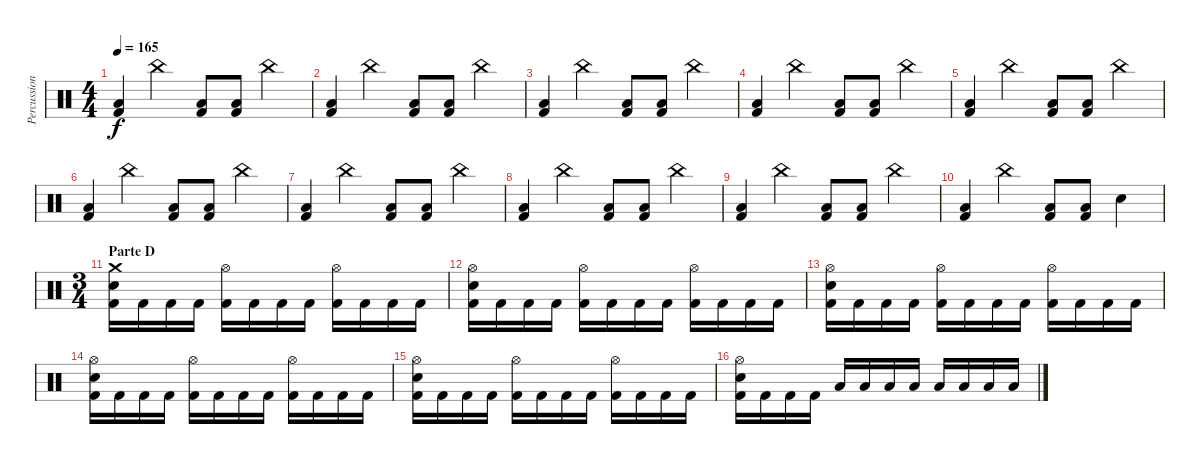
\track ("Percussion" "Percussion") {instrument percussion}
\staff {score}
\articulation defaults
\ts (4 4)
\tempo 165
\clef neutral
\ks c
("Low Tom (hit)" "Kick (hit) 2").4{dy f} "China (hit)".4 ("Low Tom (hit)" "Kick (hit) 2").8 ("Low Tom (hit)" "Kick (hit) 2").8 "China (hit)".4 |
("Low Tom (hit)" "Kick (hit) 2").4 "China (hit)".4 ("Low Tom (hit)" "Kick (hit) 2").8 ("Low Tom (hit)" "Kick (hit) 2").8 "China (hit)".4 |
("Low Tom (hit)" "Kick (hit) 2").4 "China (hit)".4 ("Low Tom (hit)" "Kick (hit) 2").8 ("Low Tom (hit)" "Kick (hit) 2").8 "China (hit)".4 |
("Low Tom (hit)" "Kick (hit) 2").4 "China (hit)".4 ("Low Tom (hit)" "Kick (hit) 2").8 ("Low Tom (hit)" "Kick (hit) 2").8 "China (hit)".4 |
("Low Tom (hit)" "Kick (hit) 2").4 "China (hit)".4 ("Low Tom (hit)" "Kick (hit) 2").8 ("Low Tom (hit)" "Kick (hit) 2").8 "China (hit)".4 |
("Low Tom (hit)" "Kick (hit) 2").4 "China (hit)".4 ("Low Tom (hit)" "Kick (hit) 2").8 ("Low Tom (hit)" "Kick (hit) 2").8 "China (hit)".4 |
("Low Tom (hit)" "Kick (hit) 2").4 "China (hit)".4 ("Low Tom (hit)" "Kick (hit) 2").8 ("Low Tom (hit)" "Kick (hit) 2").8 "China (hit)".4 |
("Low Tom (hit)" "Kick (hit) 2").4 "China (hit)".4 ("Low Tom (hit)" "Kick (hit) 2").8 ("Low Tom (hit)" "Kick (hit) 2").8 "China (hit)".4 |
("Low Tom (hit)" "Kick (hit) 2").4 "China (hit)".4 ("Low Tom (hit)" "Kick (hit) 2").8 ("Low Tom (hit)" "Kick (hit) 2").8 "China (hit)".4 |
("Low Tom (hit)" "Kick (hit) 2").4 "China (hit)".4 ("Low Tom (hit)" "Kick (hit) 2").8 ("Low Tom (hit)" "Kick (hit) 2").8 "Snare (hit) 2".4 |
\ts (3 4)
\section ("" "Parte D")
("Crash medium (hit)" "Snare (hit) 2" "Kick (hit) 2").16 "Kick (hit) 2".16 "Kick (hit) 2".16 "Kick (hit) 2".16 ("Hi-Hat (open)" "Kick (hit) 2").16 "Kick (hit) 2".16 "Kick (hit) 2".16 "Kick (hit) 2".16 ("Hi-Hat (open)" "Kick (hit) 2").16 "Kick (hit) 2".16 "Kick (hit) 2".16 "Kick (hit) 2".16 |
("Hi-Hat (open)" "Snare (hit) 2" "Kick (hit) 2").16 "Kick (hit) 2".16 "Kick (hit) 2".16 "Kick (hit) 2".16 ("Hi-Hat (open)" "Kick (hit) 2").16 "Kick (hit) 2".16 "Kick (hit) 2".16 "Kick (hit) 2".16 ("Hi-Hat (open)" "Kick (hit) 2").16 "Kick (hit) 2".16 "Kick (hit) 2".16 "Kick (hit) 2".16 |
("Hi-Hat (open)" "Snare (hit) 2" "Kick (hit) 2").16 "Kick (hit) 2".16 "Kick (hit) 2".16 "Kick (hit) 2".16 ("Hi-Hat (open)" "Kick (hit) 2").16 "Kick (hit) 2".16 "Kick (hit) 2".16 "Kick (hit) 2".16 ("Hi-Hat (open)" "Kick (hit) 2").16 "Kick (hit) 2".16 "Kick (hit) 2".16 "Kick (hit) 2".16 |
("Hi-Hat (open)" "Snare (hit) 2" "Kick (hit) 2").16 "Kick (hit) 2".16 "Kick (hit) 2".16 "Kick (hit) 2".16 ("Hi-Hat (open)" "Kick (hit) 2").16 "Kick (hit) 2".16 "Kick (hit) 2".16 "Kick (hit) 2".16 ("Hi-Hat (open)" "Kick (hit) 2").16 "Kick (hit) 2".16 "Kick (hit) 2".16 "Kick (hit) 2".16 |
("Hi-Hat (open)" "Snare (hit) 2" "Kick (hit) 2").16 "Kick (hit) 2".16 "Kick (hit) 2".16 "Kick (hit) 2".16 ("Hi-Hat (open)" "Kick (hit) 2").16 "Kick (hit) 2".16 "Kick (hit) 2".16 "Kick (hit) 2".16 ("Hi-Hat (open)" "Kick (hit) 2").16 "Kick (hit) 2".16 "Kick (hit) 2".16 "Kick (hit) 2".16 |
("Hi-Hat (open)" "Snare (hit) 2" "Kick (hit) 2").16 "Kick (hit) 2".16 "Kick (hit) 2".16 "Kick (hit) 2".16 "Low Tom (hit)".16 "Low Tom (hit)".16 "Low Tom (hit)".16 "Low Tom (hit)".16 "Low Tom (hit)".16 "Low Tom (hit)".16 "Low Tom (hit)".16 "Low Tom (hit)".16
